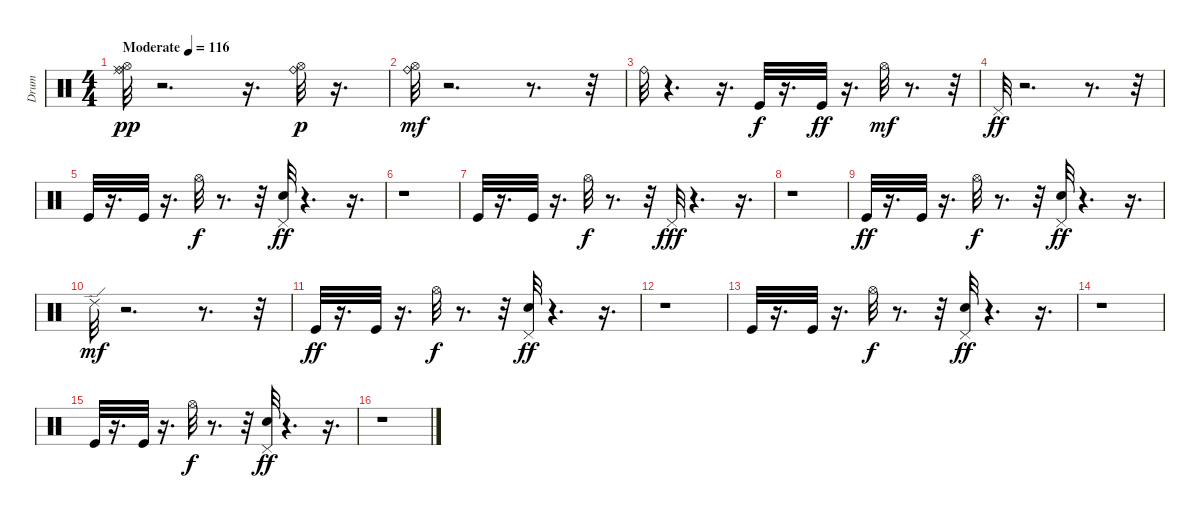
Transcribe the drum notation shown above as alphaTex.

\track ("Drum    " "Drum    ") {instrument percussion}
\staff {score}
\articulation defaults
\ts (4 4)
\tempo (116 "Moderate")
\clef neutral
\ks c
("Ride (middle)" "Hi-Hat (open)" "Ride (bell)").32{dy pp} r.2{d} r.16{d} ("Hi-Hat (open)" "Ride (bell)").32{dy p} r.16{d} |
("Hi-Hat (open)" "Ride (bell)").32{dy mf} r.2{d} r.8{d} r.32 |
"Ride (bell)".32 r.4{d} r.16{d} "Kick (hit)".32{dy f} r.16{d} "Kick (hit)".32{dy ff} r.16{d} "Hi-Hat (open)".32{dy mf} r.8{d} r.32 |
"Pedal Hi-Hat (hit)".32{dy ff} r.2{d} r.8{d} r.32 |
"Kick (hit)".32 r.16{d} "Kick (hit)".32 r.16{d} "Hi-Hat (open)".32{dy f} r.8{d} r.32 ("Pedal Hi-Hat (hit)" "Electric Snare (hit)").32{dy ff} r.4{d} r.16{d} |
r.1 |
"Kick (hit)".32 r.16{d} "Kick (hit)".32 r.16{d} "Hi-Hat (open)".32{dy f} r.8{d} r.32 "Pedal Hi-Hat (hit)".32{dy fff} r.4{d} r.16{d} |
r.1 |
"Kick (hit)".32{dy ff} r.16{d} "Kick (hit)".32 r.16{d} "Hi-Hat (open)".32{dy f} r.8{d} r.32 ("Pedal Hi-Hat (hit)" "Electric Snare (hit)").32{dy ff} r.4{d} r.16{d} |
"Ride (edge) 2".32{dy mf} r.2{d} r.8{d} r.32 |
"Kick (hit)".32{dy ff} r.16{d} "Kick (hit)".32 r.16{d} "Hi-Hat (open)".32{dy f} r.8{d} r.32 ("Electric Snare (hit)" "Pedal Hi-Hat (hit)").32{dy ff} r.4{d} r.16{d} |
r.1 |
"Kick (hit)".32 r.16{d} "Kick (hit)".32 r.16{d} "Hi-Hat (open)".32{dy f} r.8{d} r.32 ("Electric Snare (hit)" "Pedal Hi-Hat (hit)").32{dy ff} r.4{d} r.16{d} |
r.1 |
"Kick (hit)".32 r.16{d} "Kick (hit)".32 r.16{d} "Hi-Hat (open)".32{dy f} r.8{d} r.32 ("Electric Snare (hit)" "Pedal Hi-Hat (hit)").32{dy ff} r.4{d} r.16{d} |
r.1
